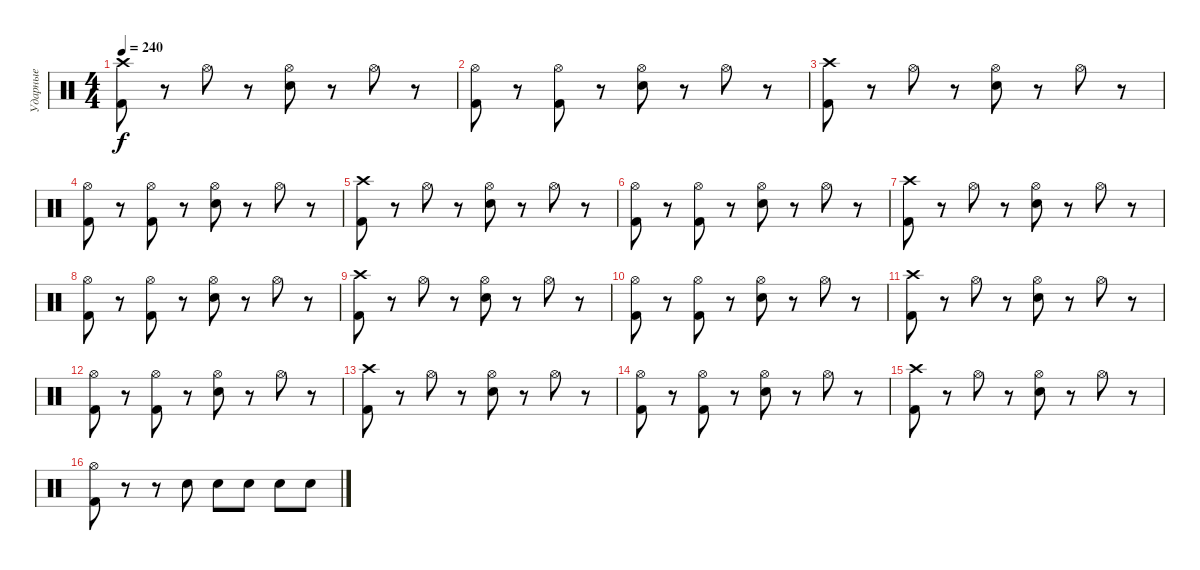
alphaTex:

\track ("Ударные" "Ударные") {instrument percussion}
\staff {score}
\articulation defaults
\ts (4 4)
\tempo 240
\clef neutral
\ks c
("Crash high (hit)" "Kick (hit) 2").8{dy f} r.8 "Hi-Hat (open)".8 r.8 ("Hi-Hat (open)" "Electric Snare (hit)").8 r.8 "Hi-Hat (open)".8 r.8 |
("Hi-Hat (open)" "Kick (hit) 2").8 r.8 ("Hi-Hat (open)" "Kick (hit) 2").8 r.8 ("Hi-Hat (open)" "Electric Snare (hit)").8 r.8 "Hi-Hat (open)".8 r.8 |
("Crash high (hit)" "Kick (hit) 2").8 r.8 "Hi-Hat (open)".8 r.8 ("Hi-Hat (open)" "Electric Snare (hit)").8 r.8 "Hi-Hat (open)".8 r.8 |
("Hi-Hat (open)" "Kick (hit) 2").8 r.8 ("Hi-Hat (open)" "Kick (hit) 2").8 r.8 ("Hi-Hat (open)" "Electric Snare (hit)").8 r.8 "Hi-Hat (open)".8 r.8 |
("Crash high (hit)" "Kick (hit) 2").8 r.8 "Hi-Hat (open)".8 r.8 ("Hi-Hat (open)" "Electric Snare (hit)").8 r.8 "Hi-Hat (open)".8 r.8 |
("Hi-Hat (open)" "Kick (hit) 2").8 r.8 ("Hi-Hat (open)" "Kick (hit) 2").8 r.8 ("Hi-Hat (open)" "Electric Snare (hit)").8 r.8 "Hi-Hat (open)".8 r.8 |
("Crash high (hit)" "Kick (hit) 2").8 r.8 "Hi-Hat (open)".8 r.8 ("Hi-Hat (open)" "Electric Snare (hit)").8 r.8 "Hi-Hat (open)".8 r.8 |
("Hi-Hat (open)" "Kick (hit) 2").8 r.8 ("Hi-Hat (open)" "Kick (hit) 2").8 r.8 ("Hi-Hat (open)" "Electric Snare (hit)").8 r.8 "Hi-Hat (open)".8 r.8 |
("Crash high (hit)" "Kick (hit) 2").8 r.8 "Hi-Hat (open)".8 r.8 ("Hi-Hat (open)" "Electric Snare (hit)").8 r.8 "Hi-Hat (open)".8 r.8 |
("Hi-Hat (open)" "Kick (hit) 2").8 r.8 ("Hi-Hat (open)" "Kick (hit) 2").8 r.8 ("Hi-Hat (open)" "Electric Snare (hit)").8 r.8 "Hi-Hat (open)".8 r.8 |
("Crash high (hit)" "Kick (hit) 2").8 r.8 "Hi-Hat (open)".8 r.8 ("Hi-Hat (open)" "Electric Snare (hit)").8 r.8 "Hi-Hat (open)".8 r.8 |
("Hi-Hat (open)" "Kick (hit) 2").8 r.8 ("Hi-Hat (open)" "Kick (hit) 2").8 r.8 ("Hi-Hat (open)" "Electric Snare (hit)").8 r.8 "Hi-Hat (open)".8 r.8 |
("Crash high (hit)" "Kick (hit) 2").8 r.8 "Hi-Hat (open)".8 r.8 ("Hi-Hat (open)" "Electric Snare (hit)").8 r.8 "Hi-Hat (open)".8 r.8 |
("Hi-Hat (open)" "Kick (hit) 2").8 r.8 ("Hi-Hat (open)" "Kick (hit) 2").8 r.8 ("Hi-Hat (open)" "Electric Snare (hit)").8 r.8 "Hi-Hat (open)".8 r.8 |
("Crash high (hit)" "Kick (hit) 2").8 r.8 "Hi-Hat (open)".8 r.8 ("Hi-Hat (open)" "Electric Snare (hit)").8 r.8 "Hi-Hat (open)".8 r.8 |
("Hi-Hat (open)" "Kick (hit) 2").8 r.8 r.8 "Electric Snare (hit)".8 "Electric Snare (hit)".8 "Electric Snare (hit)".8 "Electric Snare (hit)".8 "Electric Snare (hit)".8
